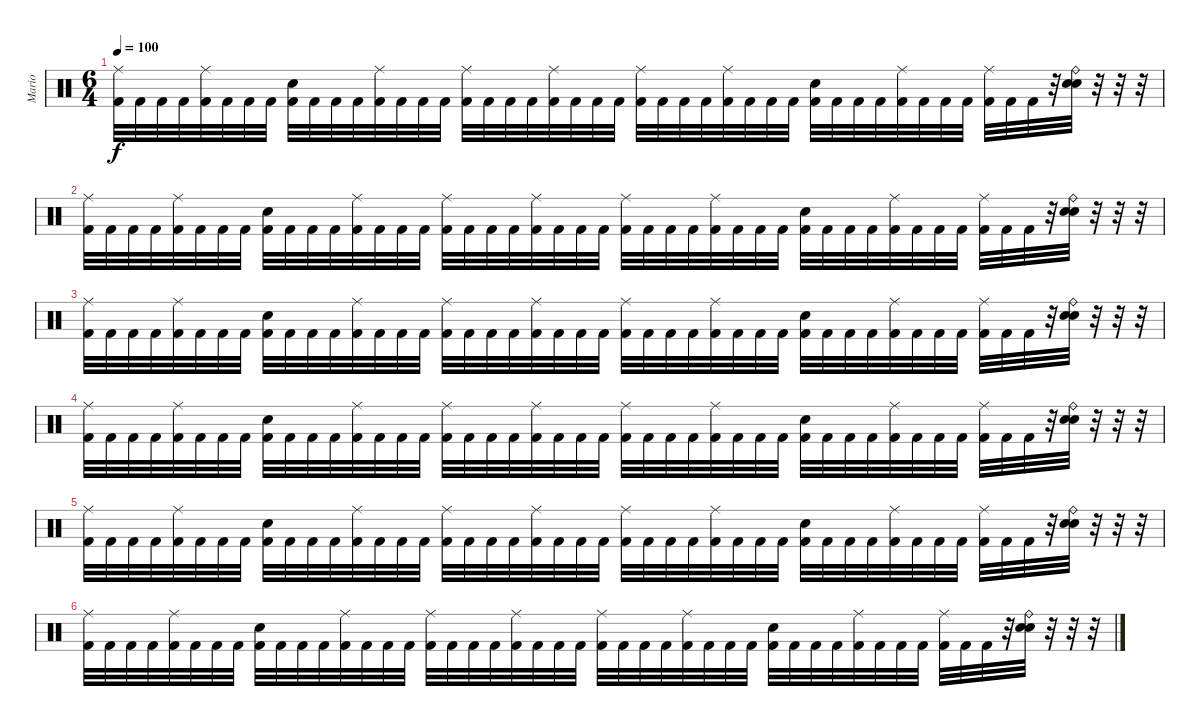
\track ("Mario" "Mario") {instrument percussion}
\staff {score}
\articulation defaults
\ts (6 4)
\tempo 100
\clef neutral
\ks c
("Ride (middle)" "Kick (hit) 2").32{dy f} "Kick (hit) 2".32 "Kick (hit) 2".32 "Kick (hit) 2".32 ("Ride (middle)" "Kick (hit) 2").32 "Kick (hit) 2".32 "Kick (hit) 2".32 "Kick (hit) 2".32 ("Electric Snare (hit)" "Kick (hit) 2").32 "Kick (hit) 2".32 "Kick (hit) 2".32 "Kick (hit) 2".32 ("Ride (middle)" "Kick (hit) 2").32 "Kick (hit) 2".32 "Kick (hit) 2".32 "Kick (hit) 2".32 ("Ride (middle)" "Kick (hit) 2").32 "Kick (hit) 2".32 "Kick (hit) 2".32 "Kick (hit) 2".32 ("Ride (middle)" "Kick (hit) 2").32 "Kick (hit) 2".32 "Kick (hit) 2".32 "Kick (hit) 2".32 ("Ride (middle)" "Kick (hit) 2").32 "Kick (hit) 2".32 "Kick (hit) 2".32 "Kick (hit) 2".32 ("Ride (middle)" "Kick (hit) 2").32 "Kick (hit) 2".32 "Kick (hit) 2".32 "Kick (hit) 2".32 ("Electric Snare (hit)" "Kick (hit) 2").32 "Kick (hit) 2".32 "Kick (hit) 2".32 "Kick (hit) 2".32 ("Ride (middle)" "Kick (hit) 2").32 "Kick (hit) 2".32 "Kick (hit) 2".32 "Kick (hit) 2".32 ("Ride (middle)" "Kick (hit) 2").32 "Kick (hit) 2".32 "Kick (hit) 2".32 r.32 ("Snare (hit) 2" "Electric Snare (hit)" "Ride (bell)").32 r.32 r.32 r.32 |
("Ride (middle)" "Kick (hit) 2").32 "Kick (hit) 2".32 "Kick (hit) 2".32 "Kick (hit) 2".32 ("Ride (middle)" "Kick (hit) 2").32 "Kick (hit) 2".32 "Kick (hit) 2".32 "Kick (hit) 2".32 ("Electric Snare (hit)" "Kick (hit) 2").32 "Kick (hit) 2".32 "Kick (hit) 2".32 "Kick (hit) 2".32 ("Ride (middle)" "Kick (hit) 2").32 "Kick (hit) 2".32 "Kick (hit) 2".32 "Kick (hit) 2".32 ("Ride (middle)" "Kick (hit) 2").32 "Kick (hit) 2".32 "Kick (hit) 2".32 "Kick (hit) 2".32 ("Ride (middle)" "Kick (hit) 2").32 "Kick (hit) 2".32 "Kick (hit) 2".32 "Kick (hit) 2".32 ("Ride (middle)" "Kick (hit) 2").32 "Kick (hit) 2".32 "Kick (hit) 2".32 "Kick (hit) 2".32 ("Ride (middle)" "Kick (hit) 2").32 "Kick (hit) 2".32 "Kick (hit) 2".32 "Kick (hit) 2".32 ("Electric Snare (hit)" "Kick (hit) 2").32 "Kick (hit) 2".32 "Kick (hit) 2".32 "Kick (hit) 2".32 ("Ride (middle)" "Kick (hit) 2").32 "Kick (hit) 2".32 "Kick (hit) 2".32 "Kick (hit) 2".32 ("Ride (middle)" "Kick (hit) 2").32 "Kick (hit) 2".32 "Kick (hit) 2".32 r.32 ("Snare (hit) 2" "Electric Snare (hit)" "Ride (bell)").32 r.32 r.32 r.32 |
("Ride (middle)" "Kick (hit) 2").32 "Kick (hit) 2".32 "Kick (hit) 2".32 "Kick (hit) 2".32 ("Ride (middle)" "Kick (hit) 2").32 "Kick (hit) 2".32 "Kick (hit) 2".32 "Kick (hit) 2".32 ("Electric Snare (hit)" "Kick (hit) 2").32 "Kick (hit) 2".32 "Kick (hit) 2".32 "Kick (hit) 2".32 ("Ride (middle)" "Kick (hit) 2").32 "Kick (hit) 2".32 "Kick (hit) 2".32 "Kick (hit) 2".32 ("Ride (middle)" "Kick (hit) 2").32 "Kick (hit) 2".32 "Kick (hit) 2".32 "Kick (hit) 2".32 ("Ride (middle)" "Kick (hit) 2").32 "Kick (hit) 2".32 "Kick (hit) 2".32 "Kick (hit) 2".32 ("Ride (middle)" "Kick (hit) 2").32 "Kick (hit) 2".32 "Kick (hit) 2".32 "Kick (hit) 2".32 ("Ride (middle)" "Kick (hit) 2").32 "Kick (hit) 2".32 "Kick (hit) 2".32 "Kick (hit) 2".32 ("Electric Snare (hit)" "Kick (hit) 2").32 "Kick (hit) 2".32 "Kick (hit) 2".32 "Kick (hit) 2".32 ("Ride (middle)" "Kick (hit) 2").32 "Kick (hit) 2".32 "Kick (hit) 2".32 "Kick (hit) 2".32 ("Ride (middle)" "Kick (hit) 2").32 "Kick (hit) 2".32 "Kick (hit) 2".32 r.32 ("Snare (hit) 2" "Electric Snare (hit)" "Ride (bell)").32 r.32 r.32 r.32 |
("Ride (middle)" "Kick (hit) 2").32 "Kick (hit) 2".32 "Kick (hit) 2".32 "Kick (hit) 2".32 ("Ride (middle)" "Kick (hit) 2").32 "Kick (hit) 2".32 "Kick (hit) 2".32 "Kick (hit) 2".32 ("Electric Snare (hit)" "Kick (hit) 2").32 "Kick (hit) 2".32 "Kick (hit) 2".32 "Kick (hit) 2".32 ("Ride (middle)" "Kick (hit) 2").32 "Kick (hit) 2".32 "Kick (hit) 2".32 "Kick (hit) 2".32 ("Ride (middle)" "Kick (hit) 2").32 "Kick (hit) 2".32 "Kick (hit) 2".32 "Kick (hit) 2".32 ("Ride (middle)" "Kick (hit) 2").32 "Kick (hit) 2".32 "Kick (hit) 2".32 "Kick (hit) 2".32 ("Ride (middle)" "Kick (hit) 2").32 "Kick (hit) 2".32 "Kick (hit) 2".32 "Kick (hit) 2".32 ("Ride (middle)" "Kick (hit) 2").32 "Kick (hit) 2".32 "Kick (hit) 2".32 "Kick (hit) 2".32 ("Electric Snare (hit)" "Kick (hit) 2").32 "Kick (hit) 2".32 "Kick (hit) 2".32 "Kick (hit) 2".32 ("Ride (middle)" "Kick (hit) 2").32 "Kick (hit) 2".32 "Kick (hit) 2".32 "Kick (hit) 2".32 ("Ride (middle)" "Kick (hit) 2").32 "Kick (hit) 2".32 "Kick (hit) 2".32 r.32 ("Snare (hit) 2" "Electric Snare (hit)" "Ride (bell)").32 r.32 r.32 r.32 |
("Ride (middle)" "Kick (hit) 2").32 "Kick (hit) 2".32 "Kick (hit) 2".32 "Kick (hit) 2".32 ("Ride (middle)" "Kick (hit) 2").32 "Kick (hit) 2".32 "Kick (hit) 2".32 "Kick (hit) 2".32 ("Electric Snare (hit)" "Kick (hit) 2").32 "Kick (hit) 2".32 "Kick (hit) 2".32 "Kick (hit) 2".32 ("Ride (middle)" "Kick (hit) 2").32 "Kick (hit) 2".32 "Kick (hit) 2".32 "Kick (hit) 2".32 ("Ride (middle)" "Kick (hit) 2").32 "Kick (hit) 2".32 "Kick (hit) 2".32 "Kick (hit) 2".32 ("Ride (middle)" "Kick (hit) 2").32 "Kick (hit) 2".32 "Kick (hit) 2".32 "Kick (hit) 2".32 ("Ride (middle)" "Kick (hit) 2").32 "Kick (hit) 2".32 "Kick (hit) 2".32 "Kick (hit) 2".32 ("Ride (middle)" "Kick (hit) 2").32 "Kick (hit) 2".32 "Kick (hit) 2".32 "Kick (hit) 2".32 ("Electric Snare (hit)" "Kick (hit) 2").32 "Kick (hit) 2".32 "Kick (hit) 2".32 "Kick (hit) 2".32 ("Ride (middle)" "Kick (hit) 2").32 "Kick (hit) 2".32 "Kick (hit) 2".32 "Kick (hit) 2".32 ("Ride (middle)" "Kick (hit) 2").32 "Kick (hit) 2".32 "Kick (hit) 2".32 r.32 ("Snare (hit) 2" "Electric Snare (hit)" "Ride (bell)").32 r.32 r.32 r.32 |
("Ride (middle)" "Kick (hit) 2").32 "Kick (hit) 2".32 "Kick (hit) 2".32 "Kick (hit) 2".32 ("Ride (middle)" "Kick (hit) 2").32 "Kick (hit) 2".32 "Kick (hit) 2".32 "Kick (hit) 2".32 ("Electric Snare (hit)" "Kick (hit) 2").32 "Kick (hit) 2".32 "Kick (hit) 2".32 "Kick (hit) 2".32 ("Ride (middle)" "Kick (hit) 2").32 "Kick (hit) 2".32 "Kick (hit) 2".32 "Kick (hit) 2".32 ("Ride (middle)" "Kick (hit) 2").32 "Kick (hit) 2".32 "Kick (hit) 2".32 "Kick (hit) 2".32 ("Ride (middle)" "Kick (hit) 2").32 "Kick (hit) 2".32 "Kick (hit) 2".32 "Kick (hit) 2".32 ("Ride (middle)" "Kick (hit) 2").32 "Kick (hit) 2".32 "Kick (hit) 2".32 "Kick (hit) 2".32 ("Ride (middle)" "Kick (hit) 2").32 "Kick (hit) 2".32 "Kick (hit) 2".32 "Kick (hit) 2".32 ("Electric Snare (hit)" "Kick (hit) 2").32 "Kick (hit) 2".32 "Kick (hit) 2".32 "Kick (hit) 2".32 ("Ride (middle)" "Kick (hit) 2").32 "Kick (hit) 2".32 "Kick (hit) 2".32 "Kick (hit) 2".32 ("Ride (middle)" "Kick (hit) 2").32 "Kick (hit) 2".32 "Kick (hit) 2".32 r.32 ("Snare (hit) 2" "Electric Snare (hit)" "Ride (bell)").32 r.32 r.32 r.32
